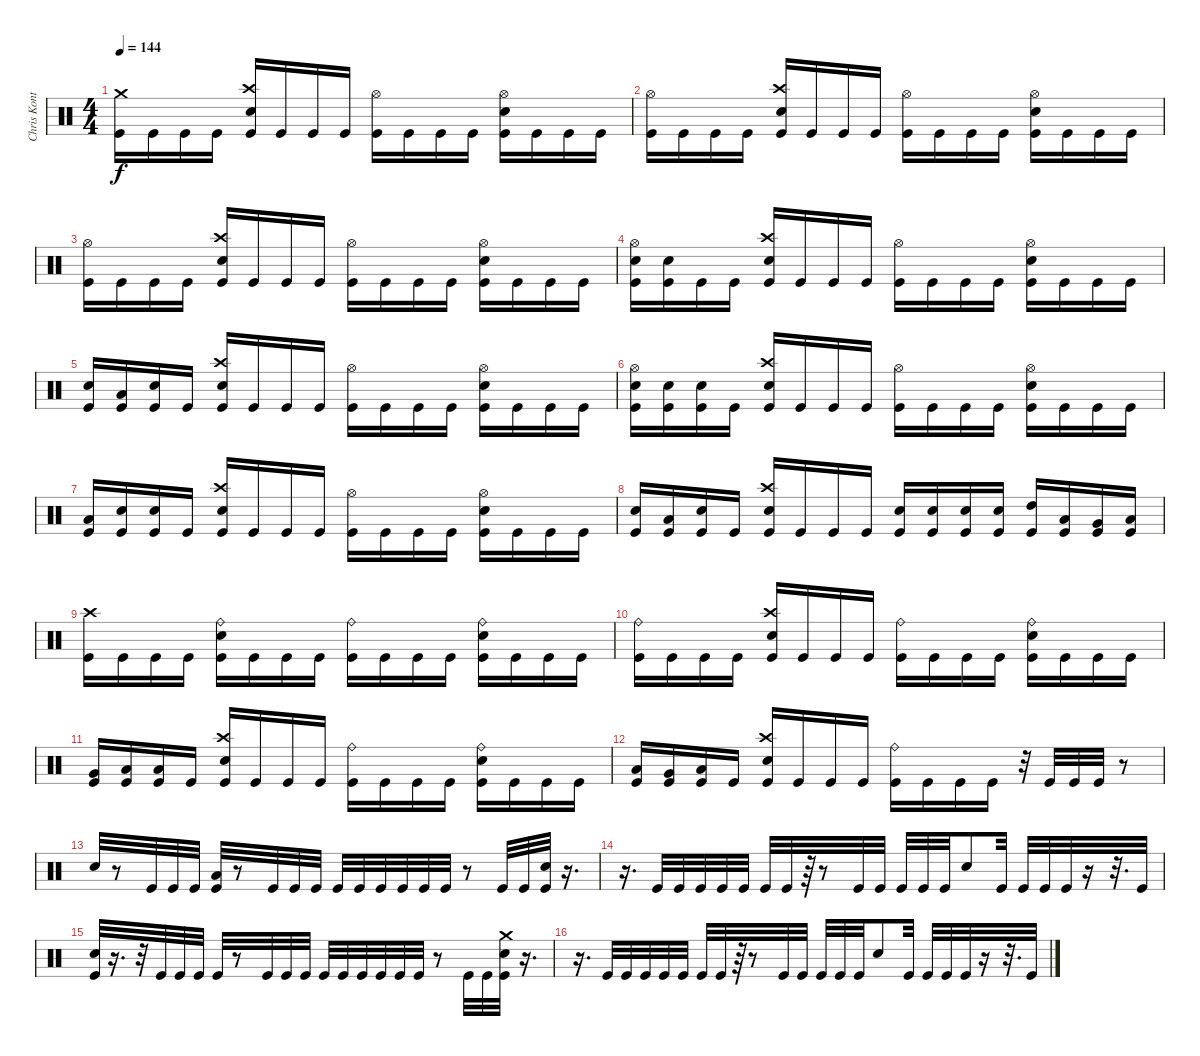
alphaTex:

\track ("Chris Kontos" "Chris Kont") {instrument percussion}
\staff {score}
\articulation defaults
\ts (4 4)
\tempo 144
\clef neutral
\ks c
("Crash medium (hit)" "Kick (hit)").16{dy f} "Kick (hit)".16 "Kick (hit)".16 "Kick (hit)".16 ("Crash high (hit)" "Electric Snare (hit)" "Kick (hit)").16 "Kick (hit)".16 "Kick (hit)".16 "Kick (hit)".16 ("Hi-Hat (open)" "Kick (hit)").16 "Kick (hit)".16 "Kick (hit)".16 "Kick (hit)".16 ("Hi-Hat (open)" "Electric Snare (hit)" "Kick (hit)").16 "Kick (hit)".16 "Kick (hit)".16 "Kick (hit)".16 |
("Hi-Hat (open)" "Kick (hit)").16 "Kick (hit)".16 "Kick (hit)".16 "Kick (hit)".16 ("Crash high (hit)" "Electric Snare (hit)" "Kick (hit)").16 "Kick (hit)".16 "Kick (hit)".16 "Kick (hit)".16 ("Hi-Hat (open)" "Kick (hit)").16 "Kick (hit)".16 "Kick (hit)".16 "Kick (hit)".16 ("Hi-Hat (open)" "Electric Snare (hit)" "Kick (hit)").16 "Kick (hit)".16 "Kick (hit)".16 "Kick (hit)".16 |
("Hi-Hat (open)" "Kick (hit)").16 "Kick (hit)".16 "Kick (hit)".16 "Kick (hit)".16 ("Crash high (hit)" "Electric Snare (hit)" "Kick (hit)").16 "Kick (hit)".16 "Kick (hit)".16 "Kick (hit)".16 ("Hi-Hat (open)" "Kick (hit)").16 "Kick (hit)".16 "Kick (hit)".16 "Kick (hit)".16 ("Hi-Hat (open)" "Electric Snare (hit)" "Kick (hit)").16 "Kick (hit)".16 "Kick (hit)".16 "Kick (hit)".16 |
("Hi-Hat (open)" "Electric Snare (hit)" "Kick (hit)").16 ("Electric Snare (hit)" "Kick (hit)").16 "Kick (hit)".16 "Kick (hit)".16 ("Crash high (hit)" "Electric Snare (hit)" "Kick (hit)").16 "Kick (hit)".16 "Kick (hit)".16 "Kick (hit)".16 ("Hi-Hat (open)" "Kick (hit)").16 "Kick (hit)".16 "Kick (hit)".16 "Kick (hit)".16 ("Hi-Hat (open)" "Electric Snare (hit)" "Kick (hit)").16 "Kick (hit)".16 "Kick (hit)".16 "Kick (hit)".16 |
("Electric Snare (hit)" "Kick (hit)").16 ("Low Tom (hit)" "Kick (hit)").16 ("Electric Snare (hit)" "Kick (hit)").16 "Kick (hit)".16 ("Crash high (hit)" "Electric Snare (hit)" "Kick (hit)").16 "Kick (hit)".16 "Kick (hit)".16 "Kick (hit)".16 ("Hi-Hat (open)" "Kick (hit)").16 "Kick (hit)".16 "Kick (hit)".16 "Kick (hit)".16 ("Hi-Hat (open)" "Electric Snare (hit)" "Kick (hit)").16 "Kick (hit)".16 "Kick (hit)".16 "Kick (hit)".16 |
("Hi-Hat (open)" "Electric Snare (hit)" "Kick (hit)").16 ("Electric Snare (hit)" "Kick (hit)").16 ("Electric Snare (hit)" "Kick (hit)").16 "Kick (hit)".16 ("Crash high (hit)" "Electric Snare (hit)" "Kick (hit)").16 "Kick (hit)".16 "Kick (hit)".16 "Kick (hit)".16 ("Hi-Hat (open)" "Kick (hit)").16 "Kick (hit)".16 "Kick (hit)".16 "Kick (hit)".16 ("Hi-Hat (open)" "Electric Snare (hit)" "Kick (hit)").16 "Kick (hit)".16 "Kick (hit)".16 "Kick (hit)".16 |
("Low Tom (hit)" "Kick (hit)").16 ("Electric Snare (hit)" "Kick (hit)").16 ("Electric Snare (hit)" "Kick (hit)").16 "Kick (hit)".16 ("Crash high (hit)" "Electric Snare (hit)" "Kick (hit)").16 "Kick (hit)".16 "Kick (hit)".16 "Kick (hit)".16 ("Hi-Hat (open)" "Kick (hit)").16 "Kick (hit)".16 "Kick (hit)".16 "Kick (hit)".16 ("Hi-Hat (open)" "Electric Snare (hit)" "Kick (hit)").16 "Kick (hit)".16 "Kick (hit)".16 "Kick (hit)".16 |
("Electric Snare (hit)" "Kick (hit)").16 ("Low Tom (hit)" "Kick (hit)").16 ("Electric Snare (hit)" "Kick (hit)").16 "Kick (hit)".16 ("Crash high (hit)" "Electric Snare (hit)" "Kick (hit)").16 "Kick (hit)".16 "Kick (hit)".16 "Kick (hit)".16 ("Electric Snare (hit)" "Kick (hit)").16 ("Electric Snare (hit)" "Kick (hit)").16 ("Electric Snare (hit)" "Kick (hit)").16 ("Electric Snare (hit)" "Kick (hit)").16 ("High Tom (hit)" "Kick (hit)").16 ("Low Tom (hit)" "Kick (hit)").16 ("Very Low Tom (hit)" "Kick (hit)").16 ("Low Floor Tom (hit)" "Kick (hit)").16 |
("Crash high (hit)" "Kick (hit)").16 "Kick (hit)".16 "Kick (hit)".16 "Kick (hit)".16 ("Ride (bell)" "Electric Snare (hit)" "Kick (hit)").16 "Kick (hit)".16 "Kick (hit)".16 "Kick (hit)".16 ("Ride (bell)" "Kick (hit)").16 "Kick (hit)".16 "Kick (hit)".16 "Kick (hit)".16 ("Ride (bell)" "Electric Snare (hit)" "Kick (hit)").16 "Kick (hit)".16 "Kick (hit)".16 "Kick (hit)".16 |
("Ride (bell)" "Kick (hit)").16 "Kick (hit)".16 "Kick (hit)".16 "Kick (hit)".16 ("Crash high (hit)" "Electric Snare (hit)" "Kick (hit)").16 "Kick (hit)".16 "Kick (hit)".16 "Kick (hit)".16 ("Ride (bell)" "Kick (hit)").16 "Kick (hit)".16 "Kick (hit)".16 "Kick (hit)".16 ("Ride (bell)" "Electric Snare (hit)" "Kick (hit)").16 "Kick (hit)".16 "Kick (hit)".16 "Kick (hit)".16 |
("Very Low Tom (hit)" "Kick (hit)").16 ("Low Tom (hit)" "Kick (hit)").16 ("Low Floor Tom (hit)" "Kick (hit)").16 "Kick (hit)".16 ("Crash high (hit)" "Electric Snare (hit)" "Kick (hit)").16 "Kick (hit)".16 "Kick (hit)".16 "Kick (hit)".16 ("Ride (bell)" "Kick (hit)").16 "Kick (hit)".16 "Kick (hit)".16 "Kick (hit)".16 ("Ride (bell)" "Electric Snare (hit)" "Kick (hit)").16 "Kick (hit)".16 "Kick (hit)".16 "Kick (hit)".16 |
("Low Tom (hit)" "Kick (hit)").16 ("Very Low Tom (hit)" "Kick (hit)").16 ("Low Floor Tom (hit)" "Kick (hit)").16 "Kick (hit)".16 ("Crash high (hit)" "Electric Snare (hit)" "Kick (hit)").16 "Kick (hit)".16 "Kick (hit)".16 "Kick (hit)".16 ("Ride (bell)" "Kick (hit)").16 "Kick (hit)".16 "Kick (hit)".16 "Kick (hit)".16 r.32 "Kick (hit)".32 "Kick (hit)".32 "Kick (hit)".32 r.8 |
"Electric Snare (hit)".32 r.8 "Kick (hit)".32 "Kick (hit)".32 "Kick (hit)".32 ("Low Floor Tom (hit)" "Kick (hit)").32 r.8 "Kick (hit)".32 "Kick (hit)".32 "Kick (hit)".32 "Kick (hit)".32 "Kick (hit)".32 "Kick (hit)".32 "Kick (hit)".32 "Kick (hit)".32 "Kick (hit)".32 r.8 "Kick (hit)".32 "Kick (hit)".32 ("Electric Snare (hit)" "Kick (hit)").32 r.16{d} |
r.16{d} "Kick (hit)".32 "Kick (hit)".32 "Kick (hit)".32 "Kick (hit)".32 "Kick (hit)".32 "Kick (hit)".32 "Kick (hit)".32 r.64 r.8 "Kick (hit)".32 "Kick (hit)".32 "Kick (hit)".32 "Kick (hit)".32 "Kick (hit)".32 "Electric Snare (hit)".8 "Kick (hit)".32 "Kick (hit)".32 "Kick (hit)".32 "Kick (hit)".32 r.16 r.32{d} "Kick (hit)".32 |
("Electric Snare (hit)" "Kick (hit)").32 r.16{d} r.32 "Kick (hit)".32 "Kick (hit)".32 "Kick (hit)".32 "Kick (hit)".32 r.8 "Kick (hit)".32 "Kick (hit)".32 "Kick (hit)".32 "Kick (hit)".32 "Kick (hit)".32 "Kick (hit)".32 "Kick (hit)".32 "Kick (hit)".32 "Kick (hit)".32 r.8 "Kick (hit)".32 "Kick (hit)".32 ("Crash medium (hit)" "Electric Snare (hit)" "Kick (hit)").32 r.16{d} |
r.16{d} "Kick (hit)".32 "Kick (hit)".32 "Kick (hit)".32 "Kick (hit)".32 "Kick (hit)".32 "Kick (hit)".32 "Kick (hit)".32 r.64 r.8 "Kick (hit)".32 "Kick (hit)".32 "Kick (hit)".32 "Kick (hit)".32 "Kick (hit)".32 "Electric Snare (hit)".8 "Kick (hit)".32 "Kick (hit)".32 "Kick (hit)".32 "Kick (hit)".32 r.16 r.32{d} "Kick (hit)".32
